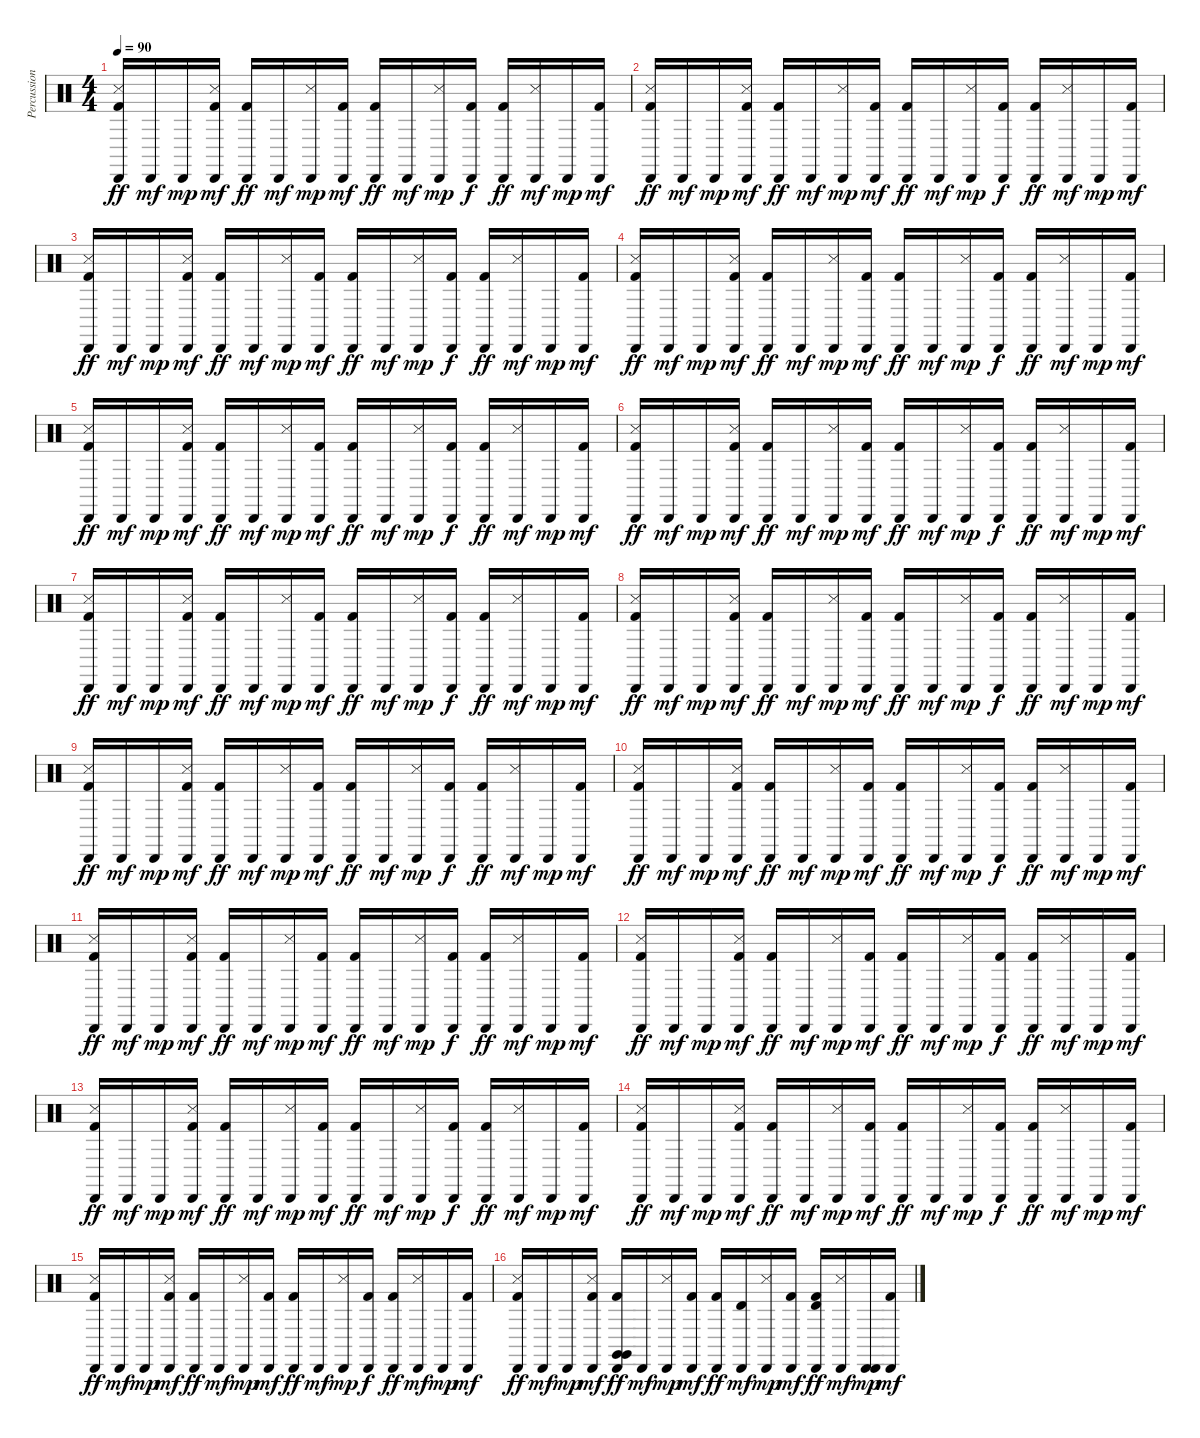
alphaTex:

\track ("Percussions" "Percussion") {instrument percussion}
\staff {score}
\articulation defaults
\ts (4 4)
\tempo 90
\clef neutral
\ks c
("Cabasa (hit)" "Snare (side stick) 3" "Kick (hit) 2").16{dy ff} "Cabasa (hit)".16{dy mf} "Cabasa (hit)".16{dy mp} ("Cabasa (hit)" "Snare (side stick) 3" "Kick (hit) 2").16{dy mf} ("Cabasa (hit)" "Kick (hit) 2").16{dy ff} "Cabasa (hit)".16{dy mf} ("Cabasa (hit)" "Snare (side stick) 3").16{dy mp} ("Cabasa (hit)" "Kick (hit) 2").16{dy mf} ("Cabasa (hit)" "Kick (hit) 2").16{dy ff} "Cabasa (hit)".16{dy mf} ("Cabasa (hit)" "Snare (side stick) 3").16{dy mp} ("Cabasa (hit)" "Kick (hit) 2").16{dy f} ("Cabasa (hit)" "Kick (hit) 2").16{dy ff} ("Cabasa (hit)" "Snare (side stick) 3").16{dy mf} "Cabasa (hit)".16{dy mp} ("Kick (hit) 2" "Cabasa (hit)").16{dy mf} |
("Cabasa (hit)" "Snare (side stick) 3" "Kick (hit) 2").16{dy ff} "Cabasa (hit)".16{dy mf} "Cabasa (hit)".16{dy mp} ("Cabasa (hit)" "Snare (side stick) 3" "Kick (hit) 2").16{dy mf} ("Cabasa (hit)" "Kick (hit) 2").16{dy ff} "Cabasa (hit)".16{dy mf} ("Cabasa (hit)" "Snare (side stick) 3").16{dy mp} ("Cabasa (hit)" "Kick (hit) 2").16{dy mf} ("Cabasa (hit)" "Kick (hit) 2").16{dy ff} "Cabasa (hit)".16{dy mf} ("Cabasa (hit)" "Snare (side stick) 3").16{dy mp} ("Cabasa (hit)" "Kick (hit) 2").16{dy f} ("Cabasa (hit)" "Kick (hit) 2").16{dy ff} ("Cabasa (hit)" "Snare (side stick) 3").16{dy mf} "Cabasa (hit)".16{dy mp} ("Kick (hit) 2" "Cabasa (hit)").16{dy mf} |
("Cabasa (hit)" "Snare (side stick) 3" "Kick (hit) 2").16{dy ff} "Cabasa (hit)".16{dy mf} "Cabasa (hit)".16{dy mp} ("Cabasa (hit)" "Snare (side stick) 3" "Kick (hit) 2").16{dy mf} ("Cabasa (hit)" "Kick (hit) 2").16{dy ff} "Cabasa (hit)".16{dy mf} ("Cabasa (hit)" "Snare (side stick) 3").16{dy mp} ("Cabasa (hit)" "Kick (hit) 2").16{dy mf} ("Cabasa (hit)" "Kick (hit) 2").16{dy ff} "Cabasa (hit)".16{dy mf} ("Cabasa (hit)" "Snare (side stick) 3").16{dy mp} ("Cabasa (hit)" "Kick (hit) 2").16{dy f} ("Cabasa (hit)" "Kick (hit) 2").16{dy ff} ("Cabasa (hit)" "Snare (side stick) 3").16{dy mf} "Cabasa (hit)".16{dy mp} ("Kick (hit) 2" "Cabasa (hit)").16{dy mf} |
("Cabasa (hit)" "Snare (side stick) 3" "Kick (hit) 2").16{dy ff} "Cabasa (hit)".16{dy mf} "Cabasa (hit)".16{dy mp} ("Cabasa (hit)" "Snare (side stick) 3" "Kick (hit) 2").16{dy mf} ("Cabasa (hit)" "Kick (hit) 2").16{dy ff} "Cabasa (hit)".16{dy mf} ("Cabasa (hit)" "Snare (side stick) 3").16{dy mp} ("Cabasa (hit)" "Kick (hit) 2").16{dy mf} ("Cabasa (hit)" "Kick (hit) 2").16{dy ff} "Cabasa (hit)".16{dy mf} ("Cabasa (hit)" "Snare (side stick) 3").16{dy mp} ("Cabasa (hit)" "Kick (hit) 2").16{dy f} ("Cabasa (hit)" "Kick (hit) 2").16{dy ff} ("Cabasa (hit)" "Snare (side stick) 3").16{dy mf} "Cabasa (hit)".16{dy mp} ("Kick (hit) 2" "Cabasa (hit)").16{dy mf} |
("Cabasa (hit)" "Snare (side stick) 3" "Kick (hit) 2").16{dy ff} "Cabasa (hit)".16{dy mf} "Cabasa (hit)".16{dy mp} ("Cabasa (hit)" "Snare (side stick) 3" "Kick (hit) 2").16{dy mf} ("Cabasa (hit)" "Kick (hit) 2").16{dy ff} "Cabasa (hit)".16{dy mf} ("Cabasa (hit)" "Snare (side stick) 3").16{dy mp} ("Cabasa (hit)" "Kick (hit) 2").16{dy mf} ("Cabasa (hit)" "Kick (hit) 2").16{dy ff} "Cabasa (hit)".16{dy mf} ("Cabasa (hit)" "Snare (side stick) 3").16{dy mp} ("Cabasa (hit)" "Kick (hit) 2").16{dy f} ("Cabasa (hit)" "Kick (hit) 2").16{dy ff} ("Cabasa (hit)" "Snare (side stick) 3").16{dy mf} "Cabasa (hit)".16{dy mp} ("Kick (hit) 2" "Cabasa (hit)").16{dy mf} |
("Cabasa (hit)" "Snare (side stick) 3" "Kick (hit) 2").16{dy ff} "Cabasa (hit)".16{dy mf} "Cabasa (hit)".16{dy mp} ("Cabasa (hit)" "Snare (side stick) 3" "Kick (hit) 2").16{dy mf} ("Cabasa (hit)" "Kick (hit) 2").16{dy ff} "Cabasa (hit)".16{dy mf} ("Cabasa (hit)" "Snare (side stick) 3").16{dy mp} ("Cabasa (hit)" "Kick (hit) 2").16{dy mf} ("Cabasa (hit)" "Kick (hit) 2").16{dy ff} "Cabasa (hit)".16{dy mf} ("Cabasa (hit)" "Snare (side stick) 3").16{dy mp} ("Cabasa (hit)" "Kick (hit) 2").16{dy f} ("Cabasa (hit)" "Kick (hit) 2").16{dy ff} ("Cabasa (hit)" "Snare (side stick) 3").16{dy mf} "Cabasa (hit)".16{dy mp} ("Kick (hit) 2" "Cabasa (hit)").16{dy mf} |
("Cabasa (hit)" "Snare (side stick) 3" "Kick (hit) 2").16{dy ff} "Cabasa (hit)".16{dy mf} "Cabasa (hit)".16{dy mp} ("Cabasa (hit)" "Snare (side stick) 3" "Kick (hit) 2").16{dy mf} ("Cabasa (hit)" "Kick (hit) 2").16{dy ff} "Cabasa (hit)".16{dy mf} ("Cabasa (hit)" "Snare (side stick) 3").16{dy mp} ("Cabasa (hit)" "Kick (hit) 2").16{dy mf} ("Cabasa (hit)" "Kick (hit) 2").16{dy ff} "Cabasa (hit)".16{dy mf} ("Cabasa (hit)" "Snare (side stick) 3").16{dy mp} ("Cabasa (hit)" "Kick (hit) 2").16{dy f} ("Cabasa (hit)" "Kick (hit) 2").16{dy ff} ("Cabasa (hit)" "Snare (side stick) 3").16{dy mf} "Cabasa (hit)".16{dy mp} ("Kick (hit) 2" "Cabasa (hit)").16{dy mf} |
("Cabasa (hit)" "Snare (side stick) 3" "Kick (hit) 2").16{dy ff} "Cabasa (hit)".16{dy mf} "Cabasa (hit)".16{dy mp} ("Cabasa (hit)" "Snare (side stick) 3" "Kick (hit) 2").16{dy mf} ("Cabasa (hit)" "Kick (hit) 2").16{dy ff} "Cabasa (hit)".16{dy mf} ("Cabasa (hit)" "Snare (side stick) 3").16{dy mp} ("Cabasa (hit)" "Kick (hit) 2").16{dy mf} ("Cabasa (hit)" "Kick (hit) 2").16{dy ff} "Cabasa (hit)".16{dy mf} ("Cabasa (hit)" "Snare (side stick) 3").16{dy mp} ("Cabasa (hit)" "Kick (hit) 2").16{dy f} ("Cabasa (hit)" "Kick (hit) 2").16{dy ff} ("Cabasa (hit)" "Snare (side stick) 3").16{dy mf} "Cabasa (hit)".16{dy mp} ("Kick (hit) 2" "Cabasa (hit)").16{dy mf} |
("Cabasa (hit)" "Snare (side stick) 3" "Kick (hit) 2").16{dy ff} "Cabasa (hit)".16{dy mf} "Cabasa (hit)".16{dy mp} ("Cabasa (hit)" "Snare (side stick) 3" "Kick (hit) 2").16{dy mf} ("Cabasa (hit)" "Kick (hit) 2").16{dy ff} "Cabasa (hit)".16{dy mf} ("Cabasa (hit)" "Snare (side stick) 3").16{dy mp} ("Cabasa (hit)" "Kick (hit) 2").16{dy mf} ("Cabasa (hit)" "Kick (hit) 2").16{dy ff} "Cabasa (hit)".16{dy mf} ("Cabasa (hit)" "Snare (side stick) 3").16{dy mp} ("Cabasa (hit)" "Kick (hit) 2").16{dy f} ("Cabasa (hit)" "Kick (hit) 2").16{dy ff} ("Cabasa (hit)" "Snare (side stick) 3").16{dy mf} "Cabasa (hit)".16{dy mp} ("Kick (hit) 2" "Cabasa (hit)").16{dy mf} |
("Cabasa (hit)" "Snare (side stick) 3" "Kick (hit) 2").16{dy ff} "Cabasa (hit)".16{dy mf} "Cabasa (hit)".16{dy mp} ("Cabasa (hit)" "Snare (side stick) 3" "Kick (hit) 2").16{dy mf} ("Cabasa (hit)" "Kick (hit) 2").16{dy ff} "Cabasa (hit)".16{dy mf} ("Cabasa (hit)" "Snare (side stick) 3").16{dy mp} ("Cabasa (hit)" "Kick (hit) 2").16{dy mf} ("Cabasa (hit)" "Kick (hit) 2").16{dy ff} "Cabasa (hit)".16{dy mf} ("Cabasa (hit)" "Snare (side stick) 3").16{dy mp} ("Cabasa (hit)" "Kick (hit) 2").16{dy f} ("Cabasa (hit)" "Kick (hit) 2").16{dy ff} ("Cabasa (hit)" "Snare (side stick) 3").16{dy mf} "Cabasa (hit)".16{dy mp} ("Kick (hit) 2" "Cabasa (hit)").16{dy mf} |
("Cabasa (hit)" "Snare (side stick) 3" "Kick (hit) 2").16{dy ff} "Cabasa (hit)".16{dy mf} "Cabasa (hit)".16{dy mp} ("Cabasa (hit)" "Snare (side stick) 3" "Kick (hit) 2").16{dy mf} ("Cabasa (hit)" "Kick (hit) 2").16{dy ff} "Cabasa (hit)".16{dy mf} ("Cabasa (hit)" "Snare (side stick) 3").16{dy mp} ("Cabasa (hit)" "Kick (hit) 2").16{dy mf} ("Cabasa (hit)" "Kick (hit) 2").16{dy ff} "Cabasa (hit)".16{dy mf} ("Cabasa (hit)" "Snare (side stick) 3").16{dy mp} ("Cabasa (hit)" "Kick (hit) 2").16{dy f} ("Cabasa (hit)" "Kick (hit) 2").16{dy ff} ("Cabasa (hit)" "Snare (side stick) 3").16{dy mf} "Cabasa (hit)".16{dy mp} ("Kick (hit) 2" "Cabasa (hit)").16{dy mf} |
("Cabasa (hit)" "Snare (side stick) 3" "Kick (hit) 2").16{dy ff} "Cabasa (hit)".16{dy mf} "Cabasa (hit)".16{dy mp} ("Cabasa (hit)" "Snare (side stick) 3" "Kick (hit) 2").16{dy mf} ("Cabasa (hit)" "Kick (hit) 2").16{dy ff} "Cabasa (hit)".16{dy mf} ("Cabasa (hit)" "Snare (side stick) 3").16{dy mp} ("Cabasa (hit)" "Kick (hit) 2").16{dy mf} ("Cabasa (hit)" "Kick (hit) 2").16{dy ff} "Cabasa (hit)".16{dy mf} ("Cabasa (hit)" "Snare (side stick) 3").16{dy mp} ("Cabasa (hit)" "Kick (hit) 2").16{dy f} ("Cabasa (hit)" "Kick (hit) 2").16{dy ff} ("Cabasa (hit)" "Snare (side stick) 3").16{dy mf} "Cabasa (hit)".16{dy mp} ("Kick (hit) 2" "Cabasa (hit)").16{dy mf} |
("Cabasa (hit)" "Snare (side stick) 3" "Kick (hit) 2").16{dy ff} "Cabasa (hit)".16{dy mf} "Cabasa (hit)".16{dy mp} ("Cabasa (hit)" "Snare (side stick) 3" "Kick (hit) 2").16{dy mf} ("Cabasa (hit)" "Kick (hit) 2").16{dy ff} "Cabasa (hit)".16{dy mf} ("Cabasa (hit)" "Snare (side stick) 3").16{dy mp} ("Cabasa (hit)" "Kick (hit) 2").16{dy mf} ("Cabasa (hit)" "Kick (hit) 2").16{dy ff} "Cabasa (hit)".16{dy mf} ("Cabasa (hit)" "Snare (side stick) 3").16{dy mp} ("Cabasa (hit)" "Kick (hit) 2").16{dy f} ("Cabasa (hit)" "Kick (hit) 2").16{dy ff} ("Cabasa (hit)" "Snare (side stick) 3").16{dy mf} "Cabasa (hit)".16{dy mp} ("Kick (hit) 2" "Cabasa (hit)").16{dy mf} |
("Cabasa (hit)" "Snare (side stick) 3" "Kick (hit) 2").16{dy ff} "Cabasa (hit)".16{dy mf} "Cabasa (hit)".16{dy mp} ("Cabasa (hit)" "Snare (side stick) 3" "Kick (hit) 2").16{dy mf} ("Cabasa (hit)" "Kick (hit) 2").16{dy ff} "Cabasa (hit)".16{dy mf} ("Cabasa (hit)" "Snare (side stick) 3").16{dy mp} ("Cabasa (hit)" "Kick (hit) 2").16{dy mf} ("Cabasa (hit)" "Kick (hit) 2").16{dy ff} "Cabasa (hit)".16{dy mf} ("Cabasa (hit)" "Snare (side stick) 3").16{dy mp} ("Cabasa (hit)" "Kick (hit) 2").16{dy f} ("Cabasa (hit)" "Kick (hit) 2").16{dy ff} ("Cabasa (hit)" "Snare (side stick) 3").16{dy mf} "Cabasa (hit)".16{dy mp} ("Kick (hit) 2" "Cabasa (hit)").16{dy mf} |
("Cabasa (hit)" "Snare (side stick) 3" "Kick (hit) 2").16{dy ff} "Cabasa (hit)".16{dy mf} "Cabasa (hit)".16{dy mp} ("Cabasa (hit)" "Snare (side stick) 3" "Kick (hit) 2").16{dy mf} ("Cabasa (hit)" "Kick (hit) 2").16{dy ff} "Cabasa (hit)".16{dy mf} ("Cabasa (hit)" "Snare (side stick) 3").16{dy mp} ("Cabasa (hit)" "Kick (hit) 2").16{dy mf} ("Cabasa (hit)" "Kick (hit) 2").16{dy ff} "Cabasa (hit)".16{dy mf} ("Cabasa (hit)" "Snare (side stick) 3").16{dy mp} ("Cabasa (hit)" "Kick (hit) 2").16{dy f} ("Cabasa (hit)" "Kick (hit) 2").16{dy ff} ("Cabasa (hit)" "Snare (side stick) 3").16{dy mf} "Cabasa (hit)".16{dy mp} ("Kick (hit) 2" "Cabasa (hit)").16{dy mf} |
("Cabasa (hit)" "Snare (side stick) 3" "Kick (hit) 2").16{dy ff} "Cabasa (hit)".16{dy mf} "Cabasa (hit)".16{dy mp} ("Cabasa (hit)" "Snare (side stick) 3" "Kick (hit) 2").16{dy mf} ("Claves (hit)" "Cabasa (hit)" "Kick (hit) 2" "Claves (hit)").16{dy ff} "Cabasa (hit)".16{dy mf} ("Cabasa (hit)" "Snare (side stick) 3").16{dy mp} ("Cabasa (hit)" "Kick (hit) 2").16{dy mf} ("Cabasa (hit)" "Kick (hit) 2").16{dy ff} ("Timbale high (hit)" "Cabasa (hit)").16{dy mf} ("Cabasa (hit)" "Snare (side stick) 3").16{dy mp} ("Cabasa (hit)" "Kick (hit) 2").16{dy mf} ("Timbale high (hit)" "Cabasa (hit)" "Kick (hit) 2").16{dy ff} ("Cabasa (hit)" "Snare (side stick) 3").16{dy mf} ("Cabasa (hit)" "Cabasa (hit)").16{dy mp} ("Cabasa (hit)" "Kick (hit) 2").16{dy mf}
